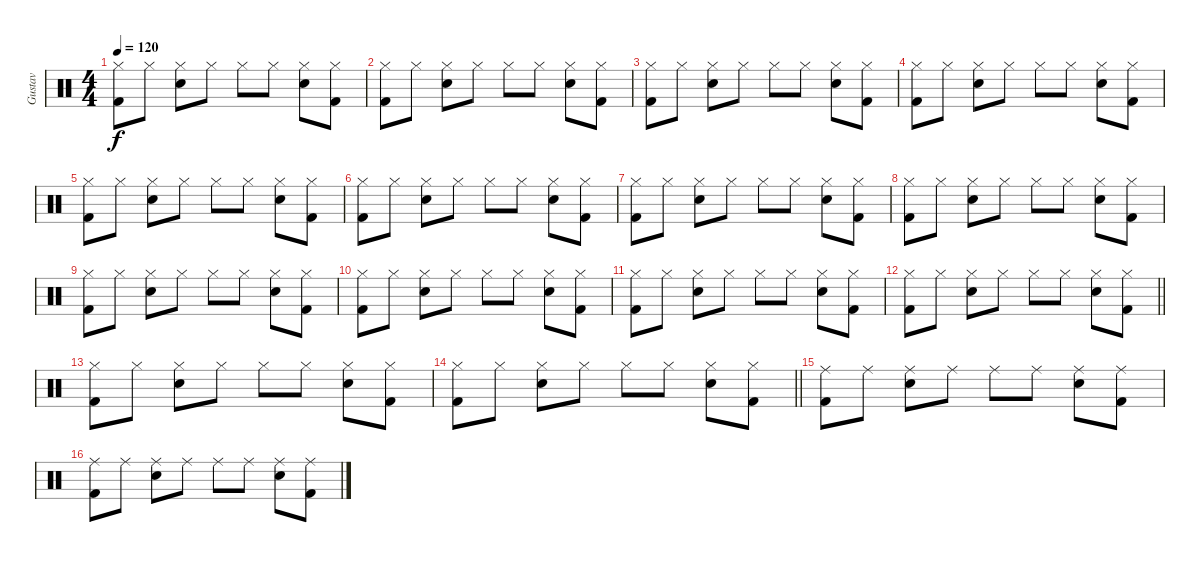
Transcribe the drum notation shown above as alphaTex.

\track ("Gustav" "Gustav") {instrument percussion}
\staff {score}
\articulation defaults
\ts (4 4)
\tempo 120
\clef neutral
\ks c
("Kick (hit) 2" "Hi-Hat (closed)").8{dy f} "Hi-Hat (closed)".8 ("Hi-Hat (closed)" "Snare (hit) 2").8 "Hi-Hat (closed)".8 "Hi-Hat (closed)".8 "Hi-Hat (closed)".8 ("Snare (hit) 2" "Hi-Hat (closed)").8 ("Hi-Hat (closed)" "Kick (hit) 2").8 |
("Kick (hit) 2" "Hi-Hat (closed)").8 "Hi-Hat (closed)".8 ("Hi-Hat (closed)" "Snare (hit) 2").8 "Hi-Hat (closed)".8 "Hi-Hat (closed)".8 "Hi-Hat (closed)".8 ("Snare (hit) 2" "Hi-Hat (closed)").8 ("Hi-Hat (closed)" "Kick (hit) 2").8 |
("Kick (hit) 2" "Hi-Hat (closed)").8 "Hi-Hat (closed)".8 ("Hi-Hat (closed)" "Snare (hit) 2").8 "Hi-Hat (closed)".8 "Hi-Hat (closed)".8 "Hi-Hat (closed)".8 ("Snare (hit) 2" "Hi-Hat (closed)").8 ("Hi-Hat (closed)" "Kick (hit) 2").8 |
("Kick (hit) 2" "Hi-Hat (closed)").8 "Hi-Hat (closed)".8 ("Hi-Hat (closed)" "Snare (hit) 2").8 "Hi-Hat (closed)".8 "Hi-Hat (closed)".8 "Hi-Hat (closed)".8 ("Snare (hit) 2" "Hi-Hat (closed)").8 ("Hi-Hat (closed)" "Kick (hit) 2").8 |
("Kick (hit) 2" "Hi-Hat (closed)").8 "Hi-Hat (closed)".8 ("Hi-Hat (closed)" "Snare (hit) 2").8 "Hi-Hat (closed)".8 "Hi-Hat (closed)".8 "Hi-Hat (closed)".8 ("Snare (hit) 2" "Hi-Hat (closed)").8 ("Hi-Hat (closed)" "Kick (hit) 2").8 |
("Kick (hit) 2" "Hi-Hat (closed)").8 "Hi-Hat (closed)".8 ("Hi-Hat (closed)" "Snare (hit) 2").8 "Hi-Hat (closed)".8 "Hi-Hat (closed)".8 "Hi-Hat (closed)".8 ("Snare (hit) 2" "Hi-Hat (closed)").8 ("Hi-Hat (closed)" "Kick (hit) 2").8 |
("Kick (hit) 2" "Hi-Hat (closed)").8{volume 12} "Hi-Hat (closed)".8 ("Hi-Hat (closed)" "Snare (hit) 2").8 "Hi-Hat (closed)".8 "Hi-Hat (closed)".8 "Hi-Hat (closed)".8 ("Snare (hit) 2" "Hi-Hat (closed)").8 ("Hi-Hat (closed)" "Kick (hit) 2").8 |
("Kick (hit) 2" "Hi-Hat (closed)").8 "Hi-Hat (closed)".8 ("Hi-Hat (closed)" "Snare (hit) 2").8 "Hi-Hat (closed)".8 "Hi-Hat (closed)".8 "Hi-Hat (closed)".8 ("Snare (hit) 2" "Hi-Hat (closed)").8 ("Hi-Hat (closed)" "Kick (hit) 2").8 |
("Kick (hit) 2" "Hi-Hat (closed)").8 "Hi-Hat (closed)".8 ("Hi-Hat (closed)" "Snare (hit) 2").8 "Hi-Hat (closed)".8 "Hi-Hat (closed)".8 "Hi-Hat (closed)".8 ("Snare (hit) 2" "Hi-Hat (closed)").8 ("Hi-Hat (closed)" "Kick (hit) 2").8 |
("Kick (hit) 2" "Hi-Hat (closed)").8 "Hi-Hat (closed)".8 ("Hi-Hat (closed)" "Snare (hit) 2").8 "Hi-Hat (closed)".8 "Hi-Hat (closed)".8 "Hi-Hat (closed)".8 ("Snare (hit) 2" "Hi-Hat (closed)").8 ("Hi-Hat (closed)" "Kick (hit) 2").8 |
("Kick (hit) 2" "Hi-Hat (closed)").8 "Hi-Hat (closed)".8 ("Hi-Hat (closed)" "Snare (hit) 2").8 "Hi-Hat (closed)".8 "Hi-Hat (closed)".8 "Hi-Hat (closed)".8 ("Snare (hit) 2" "Hi-Hat (closed)").8 ("Hi-Hat (closed)" "Kick (hit) 2").8 |
\barLineRight lightlight
("Kick (hit) 2" "Hi-Hat (closed)").8 "Hi-Hat (closed)".8 ("Hi-Hat (closed)" "Snare (hit) 2").8 "Hi-Hat (closed)".8 "Hi-Hat (closed)".8 "Hi-Hat (closed)".8 ("Snare (hit) 2" "Hi-Hat (closed)").8 ("Hi-Hat (closed)" "Kick (hit) 2").8 |
("Kick (hit) 2" "Hi-Hat (closed)").8 "Hi-Hat (closed)".8 ("Hi-Hat (closed)" "Snare (hit) 2").8 "Hi-Hat (closed)".8 "Hi-Hat (closed)".8 "Hi-Hat (closed)".8 ("Snare (hit) 2" "Hi-Hat (closed)").8 ("Hi-Hat (closed)" "Kick (hit) 2").8 |
\barLineRight lightlight
("Kick (hit) 2" "Hi-Hat (closed)").8 "Hi-Hat (closed)".8 ("Hi-Hat (closed)" "Snare (hit) 2").8 "Hi-Hat (closed)".8 "Hi-Hat (closed)".8 "Hi-Hat (closed)".8 ("Snare (hit) 2" "Hi-Hat (closed)").8 ("Hi-Hat (closed)" "Kick (hit) 2").8{volume 13} |
("Kick (hit) 2" "Ride (middle)").8 "Ride (middle)".8 ("Ride (middle)" "Snare (hit) 2").8 "Ride (middle)".8 "Ride (middle)".8 "Ride (middle)".8 ("Snare (hit) 2" "Ride (middle)").8 ("Ride (middle)" "Kick (hit) 2").8 |
("Kick (hit) 2" "Ride (middle)").8 "Ride (middle)".8 ("Ride (middle)" "Snare (hit) 2").8 "Ride (middle)".8 "Ride (middle)".8 "Ride (middle)".8 ("Snare (hit) 2" "Ride (middle)").8 ("Ride (middle)" "Kick (hit) 2").8
